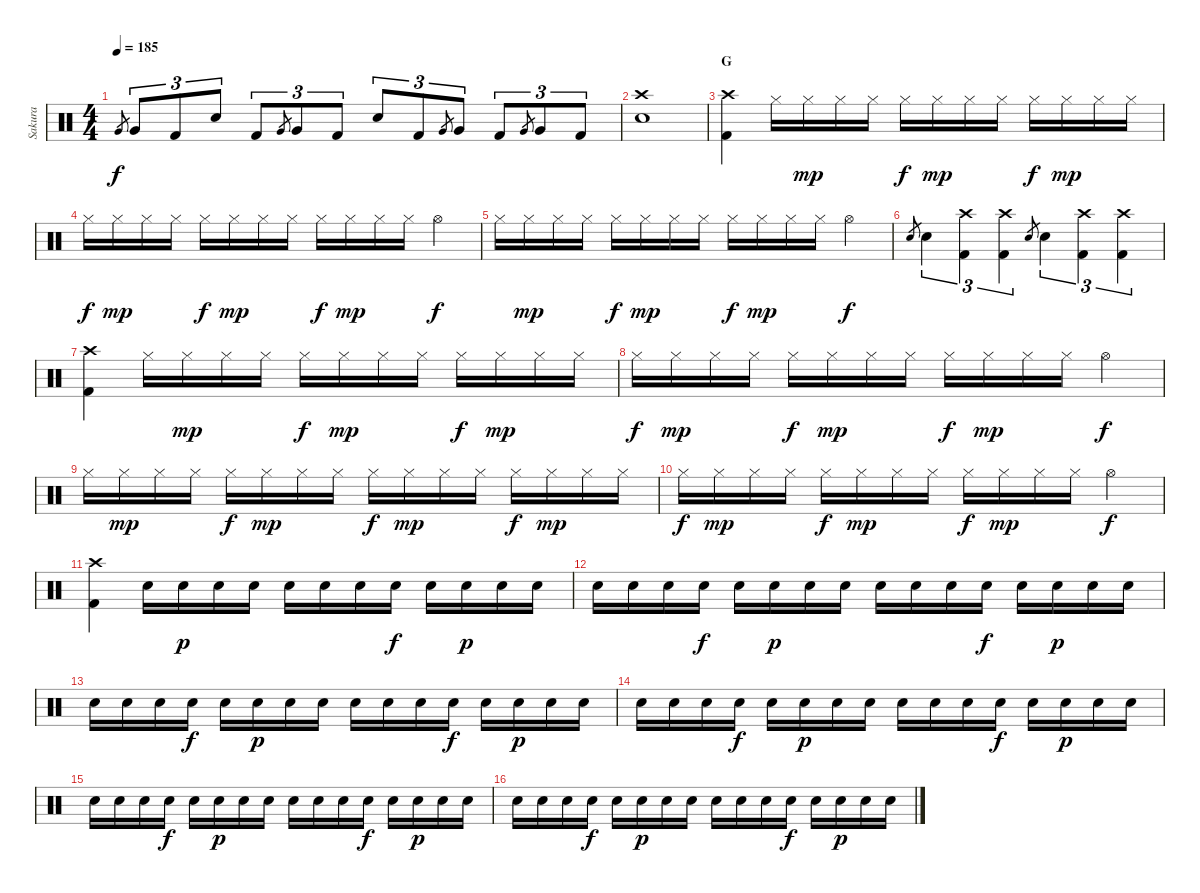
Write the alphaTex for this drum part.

\track ("Sakura" "Sakura") {instrument percussion}
\staff {score}
\articulation defaults
\ts (4 4)
\tempo 185
\clef neutral
\ks c "Very Low Tom (hit)".8{gr dy f} "Very Low Tom (hit)".8{tu (3 2)} "Kick (hit) 2".8{tu (3 2)} "Electric Snare (hit)".8{tu (3 2)} "Kick (hit) 2".8{tu (3 2)} "Very Low Tom (hit)".8{gr} "Very Low Tom (hit)".8{tu (3 2)} "Kick (hit) 2".8{tu (3 2)} "Electric Snare (hit)".8{tu (3 2)} "Kick (hit) 2".8{tu (3 2)} "Very Low Tom (hit)".8{gr} "Very Low Tom (hit)".8{tu (3 2)} "Kick (hit) 2".8{tu (3 2)} "Very Low Tom (hit)".8{gr} "Very Low Tom (hit)".8{tu (3 2)} "Kick (hit) 2".8{tu (3 2)}
|
("Crash high (hit)" "Electric Snare (hit)").1 |
\section ("" "G")
("Crash high (hit)" "Kick (hit) 2").4 "Hi-Hat (closed)".16 "Hi-Hat (closed)".16{dy mp} "Hi-Hat (closed)".16 "Hi-Hat (closed)".16 "Hi-Hat (closed)".16{dy f} "Hi-Hat (closed)".16{dy mp} "Hi-Hat (closed)".16 "Hi-Hat (closed)".16 "Hi-Hat (closed)".16{dy f} "Hi-Hat (closed)".16{dy mp} "Hi-Hat (closed)".16 "Hi-Hat (closed)".16 |
"Hi-Hat (closed)".16{dy f} "Hi-Hat (closed)".16{dy mp} "Hi-Hat (closed)".16 "Hi-Hat (closed)".16 "Hi-Hat (closed)".16{dy f} "Hi-Hat (closed)".16{dy mp} "Hi-Hat (closed)".16 "Hi-Hat (closed)".16 "Hi-Hat (closed)".16{dy f} "Hi-Hat (closed)".16{dy mp} "Hi-Hat (closed)".16 "Hi-Hat (closed)".16 "Hi-Hat (open)".4{dy f} |
"Hi-Hat (closed)".16 "Hi-Hat (closed)".16{dy mp} "Hi-Hat (closed)".16 "Hi-Hat (closed)".16 "Hi-Hat (closed)".16{dy f} "Hi-Hat (closed)".16{dy mp} "Hi-Hat (closed)".16 "Hi-Hat (closed)".16 "Hi-Hat (closed)".16{dy f} "Hi-Hat (closed)".16{dy mp} "Hi-Hat (closed)".16 "Hi-Hat (closed)".16 "Hi-Hat (open)".4{dy f} |
"Electric Snare (hit)".8{gr} "Electric Snare (hit)".4{tu (3 2)} ("Crash high (hit)" "Kick (hit) 2").4{tu (3 2)} ("Crash high (hit)" "Kick (hit) 2").4{tu (3 2)} "Electric Snare (hit)".8{gr} "Electric Snare (hit)".4{tu (3 2)} ("Crash high (hit)" "Kick (hit) 2").4{tu (3 2)} ("Crash high (hit)" "Kick (hit) 2").4{tu (3 2)} |
("Crash high (hit)" "Kick (hit) 2").4 "Hi-Hat (closed)".16 "Hi-Hat (closed)".16{dy mp} "Hi-Hat (closed)".16 "Hi-Hat (closed)".16 "Hi-Hat (closed)".16{dy f} "Hi-Hat (closed)".16{dy mp} "Hi-Hat (closed)".16 "Hi-Hat (closed)".16 "Hi-Hat (closed)".16{dy f} "Hi-Hat (closed)".16{dy mp} "Hi-Hat (closed)".16 "Hi-Hat (closed)".16 |
"Hi-Hat (closed)".16{dy f} "Hi-Hat (closed)".16{dy mp} "Hi-Hat (closed)".16 "Hi-Hat (closed)".16 "Hi-Hat (closed)".16{dy f} "Hi-Hat (closed)".16{dy mp} "Hi-Hat (closed)".16 "Hi-Hat (closed)".16 "Hi-Hat (closed)".16{dy f} "Hi-Hat (closed)".16{dy mp} "Hi-Hat (closed)".16 "Hi-Hat (closed)".16 "Hi-Hat (open)".4{dy f} |
"Hi-Hat (closed)".16 "Hi-Hat (closed)".16{dy mp} "Hi-Hat (closed)".16 "Hi-Hat (closed)".16 "Hi-Hat (closed)".16{dy f} "Hi-Hat (closed)".16{dy mp} "Hi-Hat (closed)".16 "Hi-Hat (closed)".16 "Hi-Hat (closed)".16{dy f} "Hi-Hat (closed)".16{dy mp} "Hi-Hat (closed)".16 "Hi-Hat (closed)".16 "Hi-Hat (closed)".16{dy f} "Hi-Hat (closed)".16{dy mp} "Hi-Hat (closed)".16 "Hi-Hat (closed)".16 |
"Hi-Hat (closed)".16{dy f} "Hi-Hat (closed)".16{dy mp} "Hi-Hat (closed)".16 "Hi-Hat (closed)".16 "Hi-Hat (closed)".16{dy f} "Hi-Hat (closed)".16{dy mp} "Hi-Hat (closed)".16 "Hi-Hat (closed)".16 "Hi-Hat (closed)".16{dy f} "Hi-Hat (closed)".16{dy mp} "Hi-Hat (closed)".16 "Hi-Hat (closed)".16 "Hi-Hat (open)".4{dy f} |
("Crash high (hit)" "Kick (hit) 2").4 "Snare (hit) 2".16 "Snare (hit) 2".16{dy p} "Snare (hit) 2".16 "Snare (hit) 2".16 "Snare (hit) 2".16 "Snare (hit) 2".16 "Snare (hit) 2".16 "Snare (hit) 2".16{dy f} "Snare (hit) 2".16 "Snare (hit) 2".16{dy p} "Snare (hit) 2".16 "Snare (hit) 2".16 |
"Snare (hit) 2".16 "Snare (hit) 2".16 "Snare (hit) 2".16 "Snare (hit) 2".16{dy f} "Snare (hit) 2".16 "Snare (hit) 2".16{dy p} "Snare (hit) 2".16 "Snare (hit) 2".16 "Snare (hit) 2".16 "Snare (hit) 2".16 "Snare (hit) 2".16 "Snare (hit) 2".16{dy f} "Snare (hit) 2".16 "Snare (hit) 2".16{dy p} "Snare (hit) 2".16 "Snare (hit) 2".16 |
"Snare (hit) 2".16 "Snare (hit) 2".16 "Snare (hit) 2".16 "Snare (hit) 2".16{dy f} "Snare (hit) 2".16 "Snare (hit) 2".16{dy p} "Snare (hit) 2".16 "Snare (hit) 2".16 "Snare (hit) 2".16 "Snare (hit) 2".16 "Snare (hit) 2".16 "Snare (hit) 2".16{dy f} "Snare (hit) 2".16 "Snare (hit) 2".16{dy p} "Snare (hit) 2".16 "Snare (hit) 2".16 |
"Snare (hit) 2".16 "Snare (hit) 2".16 "Snare (hit) 2".16 "Snare (hit) 2".16{dy f} "Snare (hit) 2".16 "Snare (hit) 2".16{dy p} "Snare (hit) 2".16 "Snare (hit) 2".16 "Snare (hit) 2".16 "Snare (hit) 2".16 "Snare (hit) 2".16 "Snare (hit) 2".16{dy f} "Snare (hit) 2".16 "Snare (hit) 2".16{dy p} "Snare (hit) 2".16 "Snare (hit) 2".16 |
"Snare (hit) 2".16 "Snare (hit) 2".16 "Snare (hit) 2".16 "Snare (hit) 2".16{dy f} "Snare (hit) 2".16 "Snare (hit) 2".16{dy p} "Snare (hit) 2".16 "Snare (hit) 2".16 "Snare (hit) 2".16 "Snare (hit) 2".16 "Snare (hit) 2".16 "Snare (hit) 2".16{dy f} "Snare (hit) 2".16 "Snare (hit) 2".16{dy p} "Snare (hit) 2".16 "Snare (hit) 2".16 |
"Snare (hit) 2".16 "Snare (hit) 2".16 "Snare (hit) 2".16 "Snare (hit) 2".16{dy f} "Snare (hit) 2".16 "Snare (hit) 2".16{dy p} "Snare (hit) 2".16 "Snare (hit) 2".16 "Snare (hit) 2".16 "Snare (hit) 2".16 "Snare (hit) 2".16 "Snare (hit) 2".16{dy f} "Snare (hit) 2".16 "Snare (hit) 2".16{dy p} "Snare (hit) 2".16 "Snare (hit) 2".16
